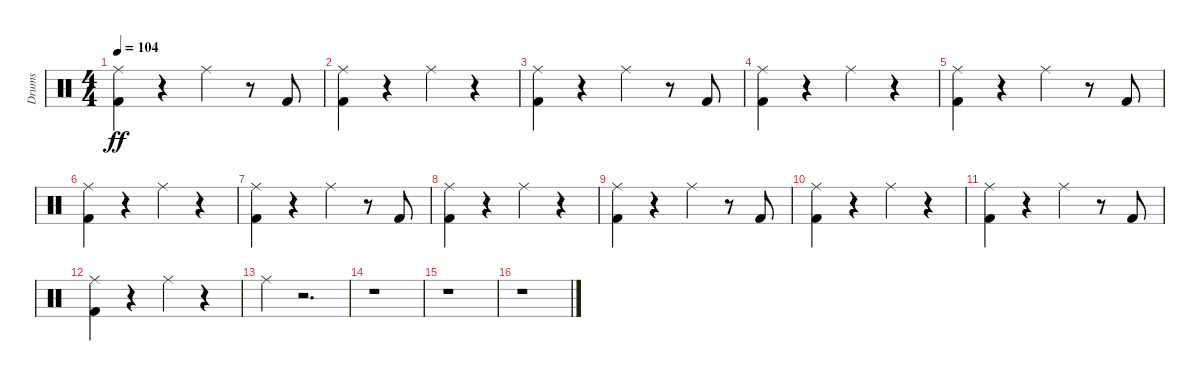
\track ("Drums" "Drums") {instrument percussion}
\staff {score}
\articulation defaults
\ts (4 4)
\tempo 104
\clef neutral
\ks c
("Ride (middle)" "Kick (hit) 2").4{dy ff} r.4 "Ride (middle)".4 r.8 "Kick (hit) 2".8 |
("Ride (middle)" "Kick (hit) 2").4 r.4 "Ride (middle)".4 r.4 |
("Ride (middle)" "Kick (hit) 2").4 r.4 "Ride (middle)".4 r.8 "Kick (hit) 2".8 |
("Ride (middle)" "Kick (hit) 2").4 r.4 "Ride (middle)".4 r.4 |
("Ride (middle)" "Kick (hit) 2").4 r.4 "Ride (middle)".4 r.8 "Kick (hit) 2".8 |
("Ride (middle)" "Kick (hit) 2").4 r.4 "Ride (middle)".4 r.4 |
("Ride (middle)" "Kick (hit) 2").4 r.4 "Ride (middle)".4 r.8 "Kick (hit) 2".8 |
("Ride (middle)" "Kick (hit) 2").4 r.4 "Ride (middle)".4 r.4 |
("Ride (middle)" "Kick (hit) 2").4 r.4 "Ride (middle)".4 r.8 "Kick (hit) 2".8 |
("Ride (middle)" "Kick (hit) 2").4 r.4 "Ride (middle)".4 r.4 |
("Ride (middle)" "Kick (hit) 2").4 r.4 "Ride (middle)".4 r.8 "Kick (hit) 2".8 |
("Ride (middle)" "Kick (hit) 2").4 r.4 "Ride (middle)".4 r.4 |
"Ride (middle)".4 r.2{d} |
r.1 |
r.1 |
r.1
